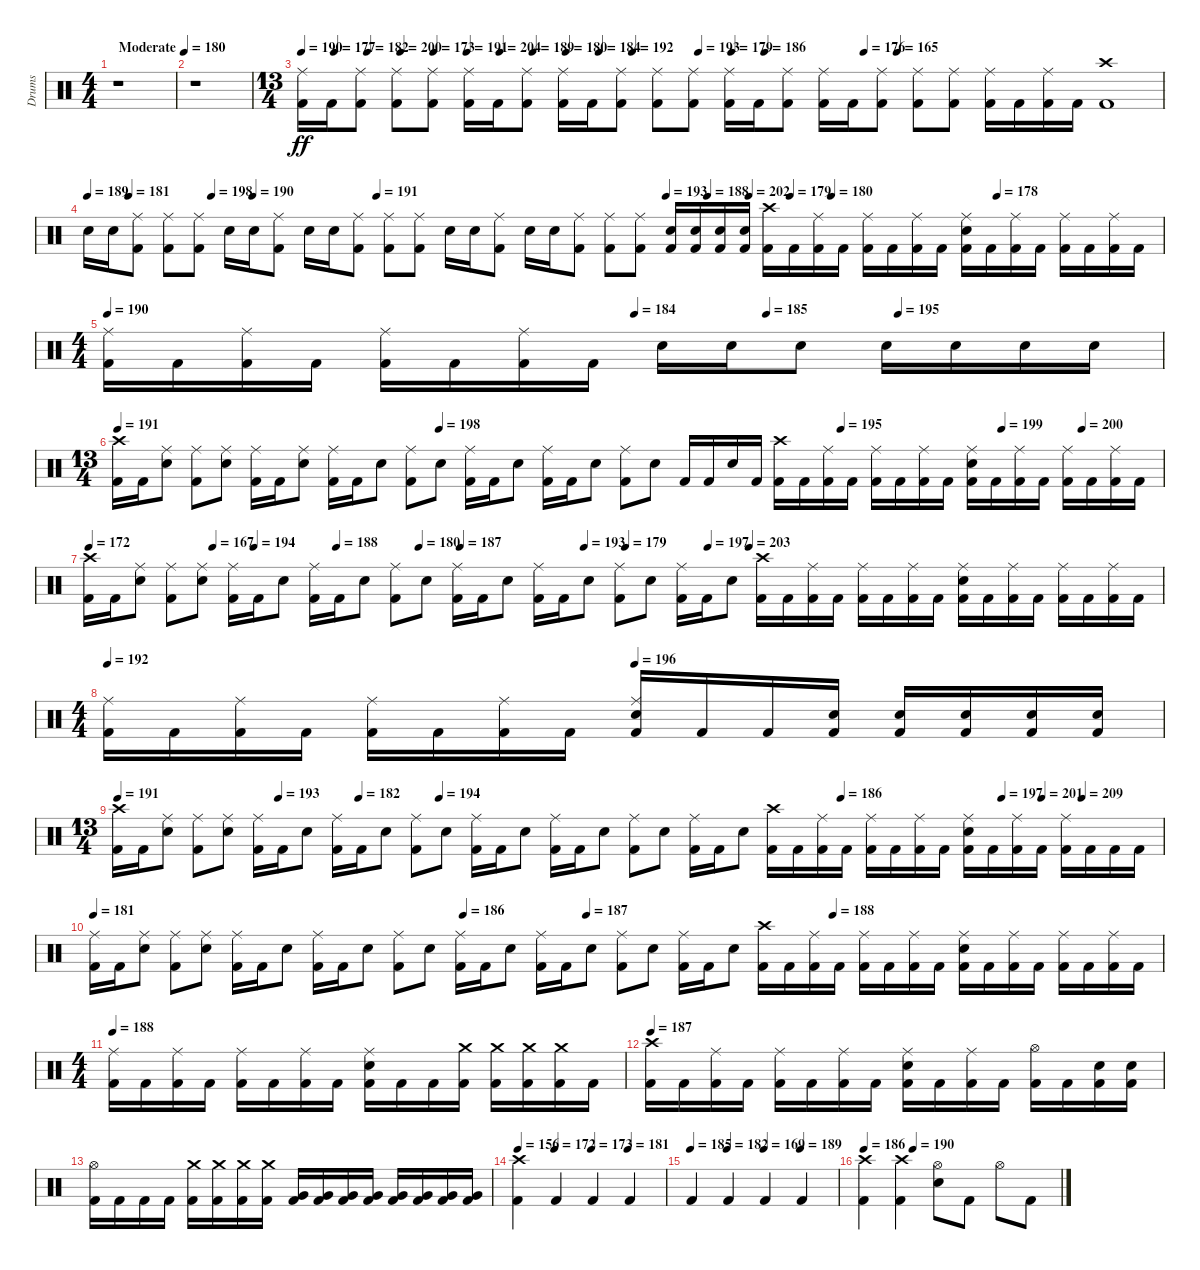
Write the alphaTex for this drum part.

\track ("Drums" "Drums") {instrument percussion}
\staff {score}
\articulation defaults
\ts (4 4)
\tempo (180 "Moderate")
\clef neutral
\ks c
r.1{dy ff} |
r.1 |
\ts (13 4)
\tempo 190
\tempo (177 0.038461538461538464)
\tempo (182 0.07692307692307693)
\tempo (200 0.11538461538461539)
\tempo (173 0.15384615384615385)
\tempo (191 0.19230769230769232)
\tempo (204 0.23076923076923078)
\tempo (189 0.2692307692307692)
\tempo (180 0.3076923076923077)
\tempo (184 0.34615384615384615)
\tempo (192 0.38461538461538464)
\tempo (193 0.46153846153846156)
\tempo (179 0.5)
\tempo (186 0.5384615384615384)
\tempo (176 0.6538461538461539)
\tempo (165 0.6923076923076923)
("Kick (hit) 2" "Ride (middle)").16 "Kick (hit) 2".16 ("Kick (hit) 2" "Ride (middle)").8 ("Kick (hit) 2" "Ride (middle)").8 ("Kick (hit) 2" "Ride (middle)").8 ("Kick (hit) 2" "Ride (middle)").16 "Kick (hit) 2".16 ("Kick (hit) 2" "Ride (middle)").8 ("Kick (hit) 2" "Ride (middle)").16 "Kick (hit) 2".16 ("Kick (hit) 2" "Ride (middle)").8 ("Kick (hit) 2" "Ride (middle)").8 ("Kick (hit) 2" "Ride (middle)").8 ("Kick (hit) 2" "Ride (middle)").16 "Kick (hit) 2".16 ("Kick (hit) 2" "Ride (middle)").8 ("Kick (hit) 2" "Ride (middle)").16 "Kick (hit) 2".16 ("Kick (hit) 2" "Ride (middle)").8 ("Kick (hit) 2" "Ride (middle)").8 ("Kick (hit) 2" "Ride (middle)").8 ("Kick (hit) 2" "Ride (middle)").16 "Kick (hit) 2".16 ("Kick (hit) 2" "Ride (middle)").16 "Kick (hit) 2".16 ("Kick (hit) 2" "Crash high (hit)").1 |
\tempo 189
\tempo (181 0.038461538461538464)
\tempo (198 0.11538461538461539)
\tempo (190 0.15384615384615385)
\tempo (191 0.2692307692307692)
\tempo (193 0.5384615384615384)
\tempo (188 0.5769230769230769)
\tempo (202 0.6153846153846154)
\tempo (179 0.6538461538461539)
\tempo (180 0.6923076923076923)
\tempo (178 0.8461538461538461)
"Snare (hit) 2".16 "Snare (hit) 2".16 ("Kick (hit) 2" "Ride (middle)").8 ("Kick (hit) 2" "Ride (middle)").8 ("Kick (hit) 2" "Ride (middle)").8 "Snare (hit) 2".16 "Snare (hit) 2".16 ("Kick (hit) 2" "Ride (middle)").8 "Snare (hit) 2".16 "Snare (hit) 2".16 ("Kick (hit) 2" "Ride (middle)").8 ("Kick (hit) 2" "Ride (middle)").8 ("Kick (hit) 2" "Ride (middle)").8 "Snare (hit) 2".16 "Snare (hit) 2".16 ("Kick (hit) 2" "Ride (middle)").8 "Snare (hit) 2".16 "Snare (hit) 2".16 ("Kick (hit) 2" "Ride (middle)").8 ("Kick (hit) 2" "Ride (middle)").8 ("Kick (hit) 2" "Ride (middle)").8 ("Kick (hit) 2" "Snare (hit) 2").16 ("Kick (hit) 2" "Snare (hit) 2").16 ("Kick (hit) 2" "Snare (hit) 2").16 ("Kick (hit) 2" "Snare (hit) 2").16 ("Kick (hit) 2" "Crash high (hit)").16 "Kick (hit) 2".16 ("Kick (hit) 2" "Ride (middle)").16 "Kick (hit) 2".16 ("Kick (hit) 2" "Ride (middle)").16 "Kick (hit) 2".16 ("Kick (hit) 2" "Ride (middle)").16 "Kick (hit) 2".16 ("Kick (hit) 2" "Snare (hit) 2" "Ride (middle)").16 "Kick (hit) 2".16 ("Kick (hit) 2" "Ride (middle)").16 "Kick (hit) 2".16 ("Kick (hit) 2" "Ride (middle)").16 "Kick (hit) 2".16 ("Kick (hit) 2" "Ride (middle)").16 "Kick (hit) 2".16 |
\ts (4 4)
\tempo 190
\tempo (184 0.5)
\tempo (185 0.625)
\tempo (195 0.75)
("Kick (hit) 2" "Ride (middle)").16 "Kick (hit) 2".16 ("Kick (hit) 2" "Ride (middle)").16 "Kick (hit) 2".16 ("Kick (hit) 2" "Ride (middle)").16 "Kick (hit) 2".16 ("Kick (hit) 2" "Ride (middle)").16 "Kick (hit) 2".16 "Snare (hit) 2".16 "Snare (hit) 2".16 "Snare (hit) 2".8 "Snare (hit) 2".16 "Snare (hit) 2".16 "Snare (hit) 2".16 "Snare (hit) 2".16 |
\ts (13 4)
\tempo 191
\tempo (198 0.3076923076923077)
\tempo (195 0.6923076923076923)
\tempo (199 0.8461538461538461)
\tempo (200 0.9230769230769231)
("Kick (hit) 2" "Crash high (hit)").16 "Kick (hit) 2".16 ("Snare (hit) 2" "Ride (middle)").8 ("Kick (hit) 2" "Ride (middle)").8 ("Snare (hit) 2" "Ride (middle)").8 ("Kick (hit) 2" "Ride (middle)").16 "Kick (hit) 2".16 ("Snare (hit) 2" "Ride (middle)").8 ("Kick (hit) 2" "Ride (middle)").16 "Kick (hit) 2".16 "Snare (hit) 2".8 ("Kick (hit) 2" "Ride (middle)").8 "Snare (hit) 2".8 ("Kick (hit) 2" "Ride (middle)").16 "Kick (hit) 2".16 "Snare (hit) 2".8 ("Kick (hit) 2" "Ride (middle)").16 "Kick (hit) 2".16 "Snare (hit) 2".8 ("Kick (hit) 2" "Ride (middle)").8 "Snare (hit) 2".8 "Kick (hit) 2".16 "Kick (hit) 2".16 "Snare (hit) 2".16 "Kick (hit) 2".16 ("Kick (hit) 2" "Crash high (hit)").16 "Kick (hit) 2".16 ("Kick (hit) 2" "Ride (middle)").16 "Kick (hit) 2".16 ("Kick (hit) 2" "Ride (middle)").16 "Kick (hit) 2".16 ("Kick (hit) 2" "Ride (middle)").16 "Kick (hit) 2".16 ("Kick (hit) 2" "Snare (hit) 2" "Ride (middle)").16 "Kick (hit) 2".16 ("Kick (hit) 2" "Ride (middle)").16 "Kick (hit) 2".16 ("Kick (hit) 2" "Ride (middle)").16 "Kick (hit) 2".16 ("Kick (hit) 2" "Ride (middle)").16 "Kick (hit) 2".16 |
\tempo 172
\tempo (167 0.11538461538461539)
\tempo (194 0.15384615384615385)
\tempo (188 0.23076923076923078)
\tempo (180 0.3076923076923077)
\tempo (187 0.34615384615384615)
\tempo (193 0.46153846153846156)
\tempo (179 0.5)
\tempo (197 0.5769230769230769)
\tempo (203 0.6153846153846154)
("Kick (hit) 2" "Crash high (hit)").16 "Kick (hit) 2".16 ("Snare (hit) 2" "Ride (middle)").8 ("Kick (hit) 2" "Ride (middle)").8 ("Snare (hit) 2" "Ride (middle)").8 ("Kick (hit) 2" "Ride (middle)").16 "Kick (hit) 2".16 "Snare (hit) 2".8 ("Kick (hit) 2" "Ride (middle)").16 "Kick (hit) 2".16 "Snare (hit) 2".8 ("Kick (hit) 2" "Ride (middle)").8 "Snare (hit) 2".8 ("Kick (hit) 2" "Ride (middle)").16 "Kick (hit) 2".16 "Snare (hit) 2".8 ("Kick (hit) 2" "Ride (middle)").16 "Kick (hit) 2".16 "Snare (hit) 2".8 ("Kick (hit) 2" "Ride (middle)").8 "Snare (hit) 2".8 ("Kick (hit) 2" "Ride (middle)").16 "Kick (hit) 2".16 "Snare (hit) 2".8 ("Kick (hit) 2" "Crash high (hit)").16 "Kick (hit) 2".16 ("Kick (hit) 2" "Ride (middle)").16 "Kick (hit) 2".16 ("Kick (hit) 2" "Ride (middle)").16 "Kick (hit) 2".16 ("Kick (hit) 2" "Ride (middle)").16 "Kick (hit) 2".16 ("Kick (hit) 2" "Snare (hit) 2" "Ride (middle)").16 "Kick (hit) 2".16 ("Kick (hit) 2" "Ride (middle)").16 "Kick (hit) 2".16 ("Kick (hit) 2" "Ride (middle)").16 "Kick (hit) 2".16 ("Kick (hit) 2" "Ride (middle)").16 "Kick (hit) 2".16 |
\ts (4 4)
\tempo 192
\tempo (196 0.5)
("Ride (middle)" "Kick (hit) 2").16 "Kick (hit) 2".16 ("Kick (hit) 2" "Ride (middle)").16 "Kick (hit) 2".16 ("Kick (hit) 2" "Ride (middle)").16 "Kick (hit) 2".16 ("Kick (hit) 2" "Ride (middle)").16 "Kick (hit) 2".16 ("Kick (hit) 2" "Snare (hit) 2" "Ride (middle)").16 "Kick (hit) 2".16 "Kick (hit) 2".16 ("Kick (hit) 2" "Snare (hit) 2").16 ("Kick (hit) 2" "Snare (hit) 2").16 ("Kick (hit) 2" "Snare (hit) 2").16 ("Kick (hit) 2" "Snare (hit) 2").16 ("Kick (hit) 2" "Snare (hit) 2").16 |
\ts (13 4)
\tempo 191
\tempo (193 0.15384615384615385)
\tempo (182 0.23076923076923078)
\tempo (194 0.3076923076923077)
\tempo (186 0.6923076923076923)
\tempo (197 0.8461538461538461)
\tempo (201 0.8846153846153846)
\tempo (209 0.9230769230769231)
("Kick (hit) 2" "Crash high (hit)").16 "Kick (hit) 2".16 ("Snare (hit) 2" "Ride (middle)").8 ("Kick (hit) 2" "Ride (middle)").8 ("Snare (hit) 2" "Ride (middle)").8 ("Kick (hit) 2" "Ride (middle)").16 "Kick (hit) 2".16 "Snare (hit) 2".8 ("Kick (hit) 2" "Ride (middle)").16 "Kick (hit) 2".16 "Snare (hit) 2".8 ("Ride (middle)" "Kick (hit) 2").8 "Snare (hit) 2".8 ("Kick (hit) 2" "Ride (middle)").16 "Kick (hit) 2".16 "Snare (hit) 2".8 ("Kick (hit) 2" "Ride (middle)").16 "Kick (hit) 2".16 "Snare (hit) 2".8 ("Kick (hit) 2" "Ride (middle)").8 "Snare (hit) 2".8 ("Kick (hit) 2" "Ride (middle)").16 "Kick (hit) 2".16 "Snare (hit) 2".8 ("Kick (hit) 2" "Crash high (hit)").16 "Kick (hit) 2".16 ("Kick (hit) 2" "Ride (middle)").16 "Kick (hit) 2".16 ("Kick (hit) 2" "Ride (middle)").16 "Kick (hit) 2".16 ("Kick (hit) 2" "Ride (middle)").16 "Kick (hit) 2".16 ("Kick (hit) 2" "Snare (hit) 2" "Ride (middle)").16 "Kick (hit) 2".16 ("Kick (hit) 2" "Ride (middle)").16 "Kick (hit) 2".16 ("Kick (hit) 2" "Ride (middle)").16 "Kick (hit) 2".16 "Kick (hit) 2".16 "Kick (hit) 2".16 |
\tempo 181
\tempo (186 0.34615384615384615)
\tempo (187 0.46153846153846156)
\tempo (188 0.6923076923076923)
("Kick (hit) 2" "Ride (middle)").16 "Kick (hit) 2".16 ("Snare (hit) 2" "Ride (middle)").8 ("Kick (hit) 2" "Ride (middle)").8 ("Snare (hit) 2" "Ride (middle)").8 ("Kick (hit) 2" "Ride (middle)").16 "Kick (hit) 2".16 "Snare (hit) 2".8 ("Kick (hit) 2" "Ride (middle)").16 "Kick (hit) 2".16 "Snare (hit) 2".8 ("Kick (hit) 2" "Ride (middle)").8 "Snare (hit) 2".8 ("Kick (hit) 2" "Ride (middle)").16 "Kick (hit) 2".16 "Snare (hit) 2".8 ("Kick (hit) 2" "Ride (middle)").16 "Kick (hit) 2".16 "Snare (hit) 2".8 ("Kick (hit) 2" "Ride (middle)").8 "Snare (hit) 2".8 ("Kick (hit) 2" "Ride (middle)").16 "Kick (hit) 2".16 "Snare (hit) 2".8 ("Kick (hit) 2" "Crash high (hit)").16 "Kick (hit) 2".16 ("Kick (hit) 2" "Ride (middle)").16 "Kick (hit) 2".16 ("Kick (hit) 2" "Ride (middle)").16 "Kick (hit) 2".16 ("Kick (hit) 2" "Ride (middle)").16 "Kick (hit) 2".16 ("Kick (hit) 2" "Snare (hit) 2" "Ride (middle)").16 "Kick (hit) 2".16 ("Kick (hit) 2" "Ride (middle)").16 "Kick (hit) 2".16 ("Kick (hit) 2" "Ride (middle)").16 "Kick (hit) 2".16 ("Kick (hit) 2" "Ride (middle)").16 "Kick (hit) 2".16 |
\ts (4 4)
\tempo 188
("Ride (middle)" "Kick (hit) 2").16 "Kick (hit) 2".16 ("Kick (hit) 2" "Ride (middle)").16 "Kick (hit) 2".16 ("Kick (hit) 2" "Ride (middle)").16 "Kick (hit) 2".16 ("Kick (hit) 2" "Ride (middle)").16 "Kick (hit) 2".16 ("Kick (hit) 2" "Snare (hit) 2" "Ride (middle)").16 "Kick (hit) 2".16 "Kick (hit) 2".16 ("Kick (hit) 2" "Crash medium (hit)").16 ("Kick (hit) 2" "Crash medium (hit)").16 ("Kick (hit) 2" "Crash medium (hit)").16 ("Kick (hit) 2" "Crash medium (hit)").16 "Kick (hit) 2".16 |
\tempo 187
("Kick (hit) 2" "Crash high (hit)").16 "Kick (hit) 2".16 ("Kick (hit) 2" "Ride (middle)").16 "Kick (hit) 2".16 ("Kick (hit) 2" "Ride (middle)").16 "Kick (hit) 2".16 ("Kick (hit) 2" "Ride (middle)").16 "Kick (hit) 2".16 ("Kick (hit) 2" "Snare (hit) 2" "Ride (middle)").16 "Kick (hit) 2".16 ("Kick (hit) 2" "Ride (middle)").16 "Kick (hit) 2".16 ("Kick (hit) 2" "Hi-Hat (open)").16 "Kick (hit) 2".16 ("Kick (hit) 2" "Snare (hit) 2").16 ("Kick (hit) 2" "Snare (hit) 2").16 |
("Kick (hit) 2" "Hi-Hat (open)").16 "Kick (hit) 2".16 "Kick (hit) 2".16 "Kick (hit) 2".16 ("Kick (hit) 2" "Crash medium (hit)").16 ("Kick (hit) 2" "Crash medium (hit)").16 ("Kick (hit) 2" "Crash medium (hit)").16 ("Kick (hit) 2" "Crash medium (hit)").16 ("Kick (hit) 2" "Very Low Tom (hit)").16 ("Kick (hit) 2" "Very Low Tom (hit)").16 ("Kick (hit) 2" "Very Low Tom (hit)").16 ("Kick (hit) 2" "Very Low Tom (hit)").16 ("Kick (hit) 2" "Very Low Tom (hit)").16 ("Kick (hit) 2" "Very Low Tom (hit)").16 ("Kick (hit) 2" "Very Low Tom (hit)").16 ("Kick (hit) 2" "Very Low Tom (hit)").16 |
\tempo 156
\tempo (172 0.25)
\tempo (173 0.5)
\tempo (181 0.75)
("Kick (hit) 2" "Crash high (hit)").4 "Kick (hit) 2".4 "Kick (hit) 2".4 "Kick (hit) 2".4 |
\tempo 185
\tempo (182 0.25)
\tempo (169 0.5)
\tempo (189 0.75)
"Kick (hit) 2".4 "Kick (hit) 2".4 "Kick (hit) 2".4 "Kick (hit) 2".4 |
\tempo 186
\tempo (190 0.25)
("Kick (hit) 2" "Crash high (hit)").4 ("Kick (hit) 2" "Crash high (hit)").4 ("Snare (hit) 2" "Hi-Hat (open)").8 "Kick (hit) 2".8 "Hi-Hat (open)".8 "Kick (hit) 2".8
